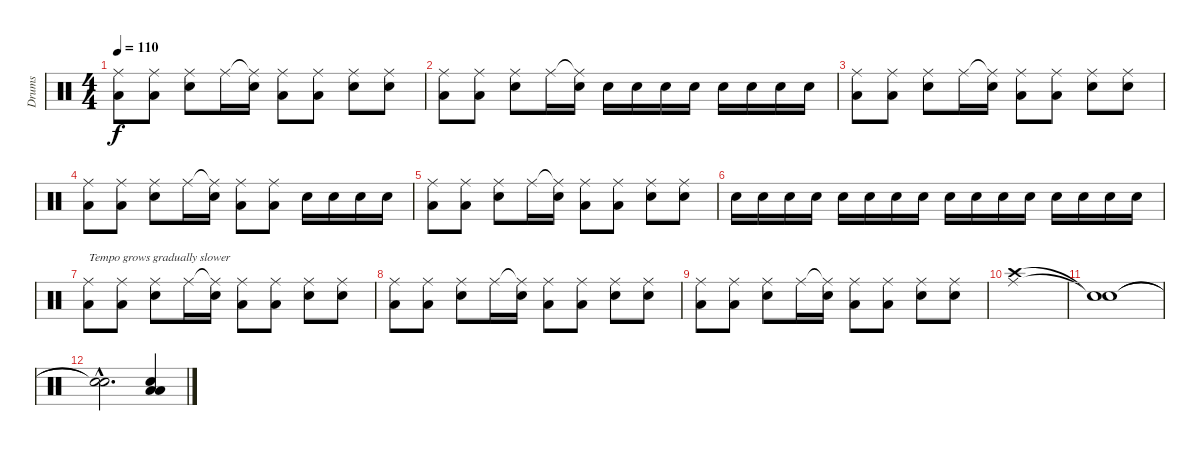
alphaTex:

\track ("Drums" "Drums") {instrument percussion}
\staff {score}
\articulation defaults
\ts (4 4)
\tempo 110
\clef neutral
\ks c
("Ride (middle)" "Low Floor Tom (hit)").8{dy f} ("Ride (middle)" "Low Floor Tom (hit)").8 ("Ride (middle)" "Snare (hit) 2").8 "Ride (middle)".16 ("Ride (middle)"{t} "Snare (hit) 2").16 ("Ride (middle)" "Low Floor Tom (hit)").8 ("Ride (middle)" "Low Floor Tom (hit)").8 ("Ride (middle)" "Snare (hit) 2").8 ("Ride (middle)" "Snare (hit) 2").8 |
("Ride (middle)" "Low Floor Tom (hit)").8 ("Ride (middle)" "Low Floor Tom (hit)").8 ("Ride (middle)" "Snare (hit) 2").8 "Ride (middle)".16 ("Ride (middle)"{t} "Snare (hit) 2").16 "Snare (hit) 2".16 "Snare (hit) 2".16 "Snare (hit) 2".16 "Snare (hit) 2".16 "Snare (hit) 2".16 "Snare (hit) 2".16 "Snare (hit) 2".16 "Snare (hit) 2".16 |
("Ride (middle)" "Low Floor Tom (hit)").8 ("Ride (middle)" "Low Floor Tom (hit)").8 ("Ride (middle)" "Snare (hit) 2").8 "Ride (middle)".16 ("Ride (middle)"{t} "Snare (hit) 2").16 ("Ride (middle)" "Low Floor Tom (hit)").8 ("Ride (middle)" "Low Floor Tom (hit)").8 ("Ride (middle)" "Snare (hit) 2").8 ("Ride (middle)" "Snare (hit) 2").8 |
("Ride (middle)" "Low Floor Tom (hit)").8 ("Ride (middle)" "Low Floor Tom (hit)").8 ("Ride (middle)" "Snare (hit) 2").8 "Ride (middle)".16 ("Ride (middle)"{t} "Snare (hit) 2").16 ("Ride (middle)" "Low Floor Tom (hit)").8 ("Ride (middle)" "Low Floor Tom (hit)").8 "Snare (hit) 2".16 "Snare (hit) 2".16 "Snare (hit) 2".16 "Snare (hit) 2".16 |
("Ride (middle)" "Low Floor Tom (hit)").8 ("Ride (middle)" "Low Floor Tom (hit)").8 ("Ride (middle)" "Snare (hit) 2").8 "Ride (middle)".16 ("Ride (middle)"{t} "Snare (hit) 2").16 ("Ride (middle)" "Low Floor Tom (hit)").8 ("Ride (middle)" "Low Floor Tom (hit)").8 ("Ride (middle)" "Snare (hit) 2").8 ("Ride (middle)" "Snare (hit) 2").8 |
"Snare (hit) 2".16 "Snare (hit) 2".16 "Snare (hit) 2".16 "Snare (hit) 2".16 "Snare (hit) 2".16 "Snare (hit) 2".16 "Snare (hit) 2".16 "Snare (hit) 2".16 "Snare (hit) 2".16 "Snare (hit) 2".16 "Snare (hit) 2".16 "Snare (hit) 2".16 "Snare (hit) 2".16 "Snare (hit) 2".16 "Snare (hit) 2".16 "Snare (hit) 2".16 |
("Ride (middle)" "Low Floor Tom (hit)").8{txt "Tempo grows gradually slower"} ("Ride (middle)" "Low Floor Tom (hit)").8 ("Ride (middle)" "Snare (hit) 2").8 "Ride (middle)".16 ("Ride (middle)"{t} "Snare (hit) 2").16 ("Ride (middle)" "Low Floor Tom (hit)").8 ("Ride (middle)" "Low Floor Tom (hit)").8 ("Ride (middle)" "Snare (hit) 2").8 ("Ride (middle)" "Snare (hit) 2").8 |
("Ride (middle)" "Low Floor Tom (hit)").8 ("Ride (middle)" "Low Floor Tom (hit)").8 ("Ride (middle)" "Snare (hit) 2").8 "Ride (middle)".16 ("Ride (middle)"{t} "Snare (hit) 2").16 ("Ride (middle)" "Low Floor Tom (hit)").8 ("Ride (middle)" "Low Floor Tom (hit)").8 ("Ride (middle)" "Snare (hit) 2").8 ("Ride (middle)" "Snare (hit) 2").8 |
("Ride (middle)" "Low Floor Tom (hit)").8 ("Ride (middle)" "Low Floor Tom (hit)").8 ("Ride (middle)" "Snare (hit) 2").8 "Ride (middle)".16 ("Ride (middle)"{t} "Snare (hit) 2").16 ("Ride (middle)" "Low Floor Tom (hit)").8 ("Ride (middle)" "Low Floor Tom (hit)").8 ("Ride (middle)" "Snare (hit) 2").8 ("Ride (middle)" "Snare (hit) 2").8 |
("Crash high (hit)" "Ride (middle)").1 |
("Snare (hit)"{t} "Snare (hit)"{t}).1 |
("Snare (hit)"{hac t} "Snare (hit)"{hac t}).2{d} ("Low Tom (hit)" "Low Floor Tom (hit)" "Snare (hit) 2").4
